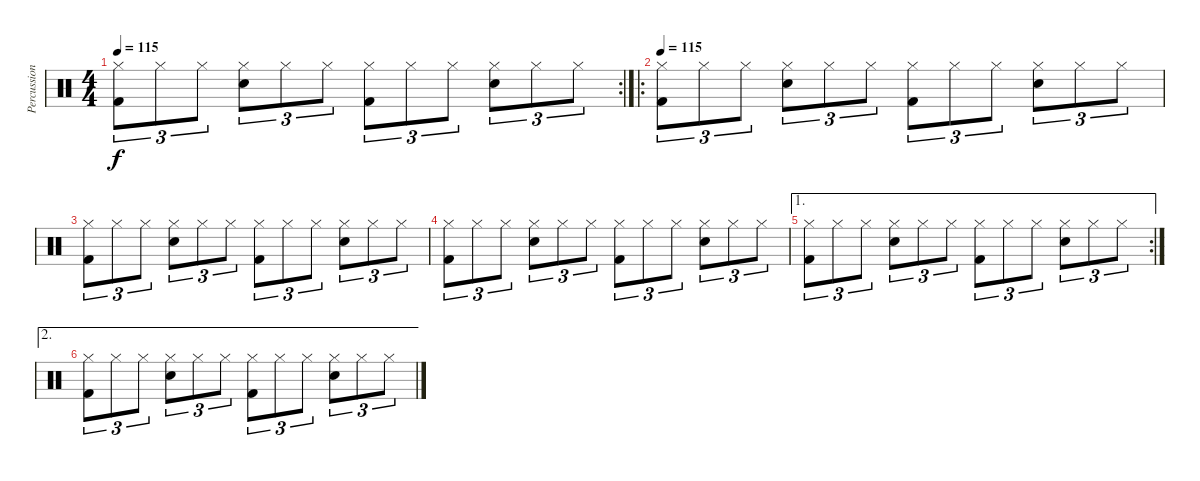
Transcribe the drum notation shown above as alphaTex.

\track ("Percussion" "Percussion") {instrument percussion}
\staff {score}
\articulation defaults
\rc 2
\ts (4 4)
\tempo 115
\clef neutral
\ks c
("Hi-Hat (closed)" "Kick (hit) 2").8{tu (3 2) dy f} "Hi-Hat (closed)".8{tu (3 2)} "Hi-Hat (closed)".8{tu (3 2)} ("Hi-Hat (closed)" "Snare (hit) 2").8{tu (3 2)} "Hi-Hat (closed)".8{tu (3 2)} "Hi-Hat (closed)".8{tu (3 2)} ("Hi-Hat (closed)" "Kick (hit) 2").8{tu (3 2)} "Hi-Hat (closed)".8{tu (3 2)} "Hi-Hat (closed)".8{tu (3 2)} ("Hi-Hat (closed)" "Snare (hit) 2").8{tu (3 2)} "Hi-Hat (closed)".8{tu (3 2)} "Hi-Hat (closed)".8{tu (3 2)} |
\ro
\tempo 115
("Hi-Hat (closed)" "Kick (hit) 2").8{tu (3 2)} "Hi-Hat (closed)".8{tu (3 2)} "Hi-Hat (closed)".8{tu (3 2)} ("Hi-Hat (closed)" "Snare (hit) 2").8{tu (3 2)} "Hi-Hat (closed)".8{tu (3 2)} "Hi-Hat (closed)".8{tu (3 2)} ("Hi-Hat (closed)" "Kick (hit) 2").8{tu (3 2)} "Hi-Hat (closed)".8{tu (3 2)} "Hi-Hat (closed)".8{tu (3 2)} ("Hi-Hat (closed)" "Snare (hit) 2").8{tu (3 2)} "Hi-Hat (closed)".8{tu (3 2)} "Hi-Hat (closed)".8{tu (3 2)} |
("Hi-Hat (closed)" "Kick (hit) 2").8{tu (3 2)} "Hi-Hat (closed)".8{tu (3 2)} "Hi-Hat (closed)".8{tu (3 2)} ("Hi-Hat (closed)" "Snare (hit) 2").8{tu (3 2)} "Hi-Hat (closed)".8{tu (3 2)} "Hi-Hat (closed)".8{tu (3 2)} ("Hi-Hat (closed)" "Kick (hit) 2").8{tu (3 2)} "Hi-Hat (closed)".8{tu (3 2)} "Hi-Hat (closed)".8{tu (3 2)} ("Hi-Hat (closed)" "Snare (hit) 2").8{tu (3 2)} "Hi-Hat (closed)".8{tu (3 2)} "Hi-Hat (closed)".8{tu (3 2)} |
("Hi-Hat (closed)" "Kick (hit) 2").8{tu (3 2)} "Hi-Hat (closed)".8{tu (3 2)} "Hi-Hat (closed)".8{tu (3 2)} ("Hi-Hat (closed)" "Snare (hit) 2").8{tu (3 2)} "Hi-Hat (closed)".8{tu (3 2)} "Hi-Hat (closed)".8{tu (3 2)} ("Hi-Hat (closed)" "Kick (hit) 2").8{tu (3 2)} "Hi-Hat (closed)".8{tu (3 2)} "Hi-Hat (closed)".8{tu (3 2)} ("Hi-Hat (closed)" "Snare (hit) 2").8{tu (3 2)} "Hi-Hat (closed)".8{tu (3 2)} "Hi-Hat (closed)".8{tu (3 2)} |
\ae 1
\rc 2
("Hi-Hat (closed)" "Kick (hit) 2").8{tu (3 2)} "Hi-Hat (closed)".8{tu (3 2)} "Hi-Hat (closed)".8{tu (3 2)} ("Hi-Hat (closed)" "Snare (hit) 2").8{tu (3 2)} "Hi-Hat (closed)".8{tu (3 2)} "Hi-Hat (closed)".8{tu (3 2)} ("Hi-Hat (closed)" "Kick (hit) 2").8{tu (3 2)} "Hi-Hat (closed)".8{tu (3 2)} "Hi-Hat (closed)".8{tu (3 2)} ("Hi-Hat (closed)" "Snare (hit) 2").8{tu (3 2)} "Hi-Hat (closed)".8{tu (3 2)} "Hi-Hat (closed)".8{tu (3 2)} |
\ae 2
("Hi-Hat (closed)" "Kick (hit) 2").8{tu (3 2)} "Hi-Hat (closed)".8{tu (3 2)} "Hi-Hat (closed)".8{tu (3 2)} ("Hi-Hat (closed)" "Snare (hit) 2").8{tu (3 2)} "Hi-Hat (closed)".8{tu (3 2)} "Hi-Hat (closed)".8{tu (3 2)} ("Hi-Hat (closed)" "Kick (hit) 2").8{tu (3 2)} "Hi-Hat (closed)".8{tu (3 2)} "Hi-Hat (closed)".8{tu (3 2)} ("Hi-Hat (closed)" "Snare (hit) 2").8{tu (3 2)} "Hi-Hat (closed)".8{tu (3 2)} "Hi-Hat (closed)".8{tu (3 2)}
